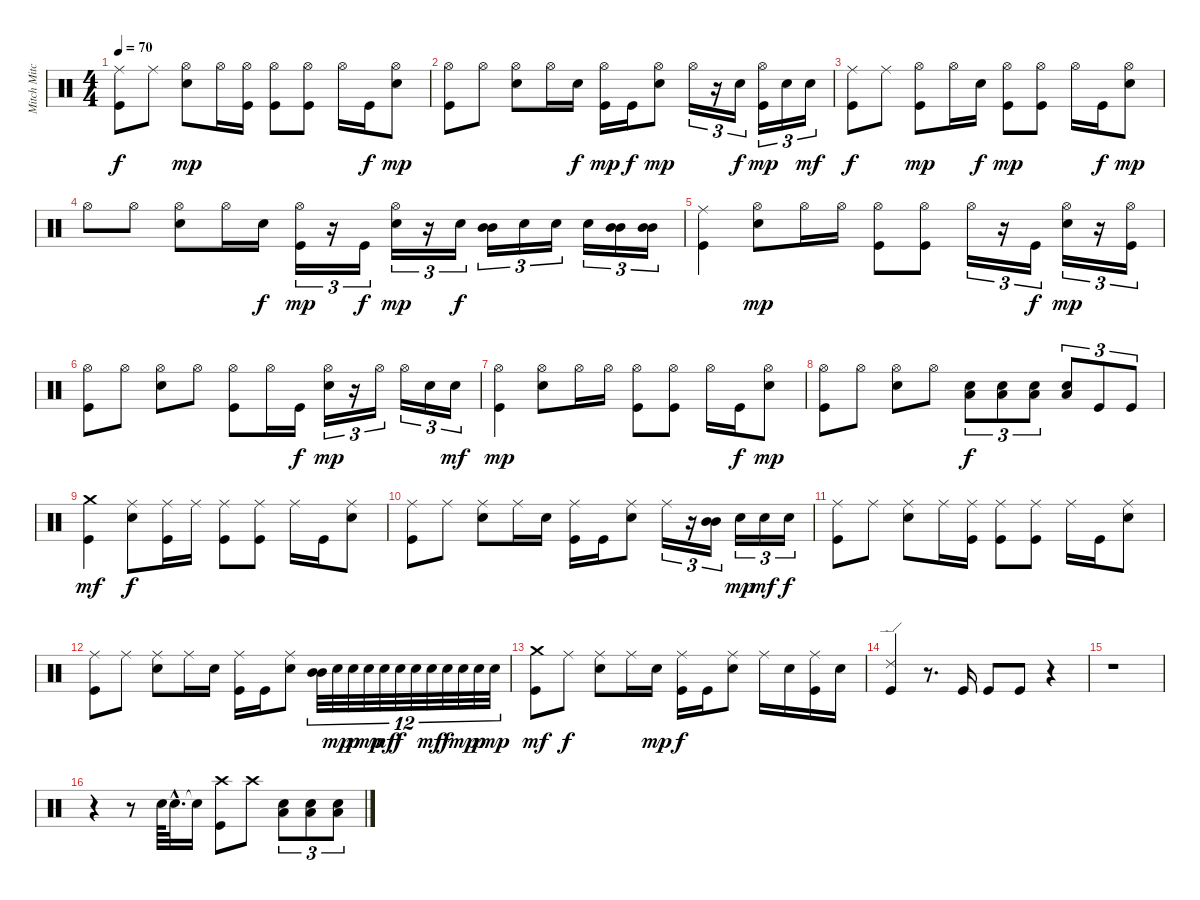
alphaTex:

\track ("Mitch Mitchell" "Mitch Mitc") {instrument percussion}
\staff {score}
\articulation defaults
\ts (4 4)
\tempo 70
\clef neutral
\ks c
("Ride (middle)" "Kick (hit)").8{dy f} "Ride (middle)".8 ("Hi-Hat (open)" "Electric Snare (hit)").8{dy mp} "Hi-Hat (open)".16 ("Hi-Hat (open)" "Kick (hit)").16 ("Hi-Hat (open)" "Kick (hit)").8 ("Hi-Hat (open)" "Kick (hit)").8 "Hi-Hat (open)".16 "Kick (hit)".16{dy f} ("Hi-Hat (open)" "Electric Snare (hit)").8{dy mp} |
("Hi-Hat (open)" "Kick (hit)").8 "Hi-Hat (open)".8 ("Hi-Hat (open)" "Electric Snare (hit)").8 "Hi-Hat (open)".16 "Electric Snare (hit)".16{dy f} ("Hi-Hat (open)" "Kick (hit)").16{dy mp} "Kick (hit)".16{dy f} ("Hi-Hat (open)" "Electric Snare (hit)").8{dy mp} "Hi-Hat (open)".16{tu (3 2)} r.16{tu (3 2)} "Electric Snare (hit)".16{tu (3 2) dy f} ("Hi-Hat (open)" "Kick (hit)").16{tu (3 2) dy mp} "Electric Snare (hit)".16{tu (3 2)} "Electric Snare (hit)".16{tu (3 2) dy mf} |
("Ride (middle)" "Kick (hit)").8{dy f} "Ride (middle)".8 ("Hi-Hat (open)" "Kick (hit)").8{dy mp} "Hi-Hat (open)".16 "Electric Snare (hit)".16{dy f} ("Hi-Hat (open)" "Kick (hit)").8{dy mp} ("Hi-Hat (open)" "Kick (hit)").8 "Hi-Hat (open)".16 "Kick (hit)".16{dy f} ("Hi-Hat (open)" "Electric Snare (hit)").8{dy mp} |
"Hi-Hat (open)".8 "Hi-Hat (open)".8 ("Hi-Hat (open)" "Electric Snare (hit)").8 "Hi-Hat (open)".16 "Electric Snare (hit)".16{dy f} ("Hi-Hat (open)" "Kick (hit)").16{tu (3 2) dy mp} r.16{tu (3 2)} "Kick (hit)".16{tu (3 2) dy f} ("Hi-Hat (open)" "Electric Snare (hit)").16{tu (3 2) dy mp} r.16{tu (3 2)} "Electric Snare (hit)".16{tu (3 2) dy f} ("Mid Tom (hit)" "Mid Tom (hit)").16{tu (3 2)} "Electric Snare (hit)".16{tu (3 2)} "Electric Snare (hit)".16{tu (3 2)} "Electric Snare (hit)".16{tu (3 2)} ("Mid Tom (hit)" "Mid Tom (hit)").16{tu (3 2)} ("Mid Tom (hit)" "Mid Tom (hit)").16{tu (3 2)} |
("Ride (middle)" "Kick (hit)").4 ("Hi-Hat (open)" "Electric Snare (hit)").8{dy mp} "Hi-Hat (open)".16 "Hi-Hat (open)".16 ("Hi-Hat (open)" "Kick (hit)").8 ("Hi-Hat (open)" "Kick (hit)").8 "Hi-Hat (open)".16{tu (3 2)} r.16{tu (3 2)} "Kick (hit)".16{tu (3 2) dy f} ("Hi-Hat (open)" "Electric Snare (hit)").16{tu (3 2) dy mp} r.16{tu (3 2)} ("Hi-Hat (open)" "Kick (hit)").16{tu (3 2)} |
("Hi-Hat (open)" "Kick (hit)").8 "Hi-Hat (open)".8 ("Hi-Hat (open)" "Electric Snare (hit)").8 "Hi-Hat (open)".8 ("Hi-Hat (open)" "Kick (hit)").8 "Hi-Hat (open)".16 "Kick (hit)".16{dy f} ("Hi-Hat (open)" "Electric Snare (hit)").16{tu (3 2) dy mp} r.16{tu (3 2)} "Hi-Hat (open)".16{tu (3 2)} "Hi-Hat (open)".16{tu (3 2)} "Electric Snare (hit)".16{tu (3 2)} "Electric Snare (hit)".16{tu (3 2) dy mf} |
("Hi-Hat (open)" "Kick (hit)").4{dy mp} ("Hi-Hat (open)" "Electric Snare (hit)").8 "Hi-Hat (open)".16 "Hi-Hat (open)".16 ("Hi-Hat (open)" "Kick (hit)").8 ("Hi-Hat (open)" "Kick (hit)").8 "Hi-Hat (open)".16 "Kick (hit)".16{dy f} ("Hi-Hat (open)" "Electric Snare (hit)").8{dy mp} |
("Hi-Hat (open)" "Kick (hit)").8 "Hi-Hat (open)".8 ("Hi-Hat (open)" "Electric Snare (hit)").8 "Hi-Hat (open)".8 ("Electric Snare (hit)" "Low Tom (hit)").8{tu (3 2) dy f} ("Electric Snare (hit)" "Low Tom (hit)").8{tu (3 2)} ("Electric Snare (hit)" "Low Tom (hit)").8{tu (3 2)} ("Electric Snare (hit)" "Low Tom (hit)").8{tu (3 2)} "Kick (hit)".8{tu (3 2)} "Kick (hit)".8{tu (3 2)} |
("Crash medium (hit)" "Kick (hit)").4{dy mf} ("Ride (middle)" "Electric Snare (hit)").8{dy f} ("Ride (middle)" "Kick (hit)").16 "Ride (middle)".16 ("Ride (middle)" "Kick (hit)").8 ("Ride (middle)" "Kick (hit)").8 "Ride (middle)".16 "Kick (hit)".16 ("Ride (middle)" "Electric Snare (hit)").8 |
("Ride (middle)" "Kick (hit)").8 "Ride (middle)".8 ("Ride (middle)" "Electric Snare (hit)").8 "Ride (middle)".16 "Electric Snare (hit)".16 ("Ride (middle)" "Kick (hit)").16 "Kick (hit)".16 ("Ride (middle)" "Electric Snare (hit)").8 "Ride (middle)".16{tu (3 2)} r.16{tu (3 2)} ("Mid Tom (hit)" "Mid Tom (hit)").16{tu (3 2)} "Electric Snare (hit)".16{tu (3 2) dy mp} "Electric Snare (hit)".16{tu (3 2) dy mf} "Electric Snare (hit)".16{tu (3 2) dy f} |
("Ride (middle)" "Kick (hit)").8 "Ride (middle)".8 ("Ride (middle)" "Electric Snare (hit)").8 "Ride (middle)".16 ("Ride (middle)" "Kick (hit)").16 ("Ride (middle)" "Kick (hit)").8 ("Ride (middle)" "Kick (hit)").8 "Ride (middle)".16 "Kick (hit)".16 ("Ride (middle)" "Electric Snare (hit)").8 |
("Ride (middle)" "Kick (hit)").8 "Ride (middle)".8 ("Ride (middle)" "Electric Snare (hit)").8 "Ride (middle)".16 "Electric Snare (hit)".16 ("Ride (middle)" "Kick (hit)").16 "Kick (hit)".16 ("Ride (middle)" "Electric Snare (hit)").8 ("Mid Tom (hit)" "Mid Tom (hit)").32{tu (12 8)} "Electric Snare (hit)".32{tu (12 8) dy mp} "Electric Snare (hit)".32{tu (12 8) dy p} "Electric Snare (hit)".32{tu (12 8) dy mp} "Electric Snare (hit)".32{tu (12 8) dy mf} "Electric Snare (hit)".32{tu (12 8) dy f} "Electric Snare (hit)".32{tu (12 8)} "Electric Snare (hit)".32{tu (12 8) dy mf} "Electric Snare (hit)".32{tu (12 8) dy f} "Electric Snare (hit)".32{tu (12 8) dy mp} "Electric Snare (hit)".32{tu (12 8) dy p} "Electric Snare (hit)".32{tu (12 8) dy mp} |
("Crash medium (hit)" "Kick (hit)").8{dy mf} "Ride (middle)".8{dy f} ("Ride (middle)" "Electric Snare (hit)").8 "Ride (middle)".16 "Electric Snare (hit)".16{dy mp} ("Ride (middle)" "Kick (hit)").16{dy f} "Kick (hit)".16 ("Ride (middle)" "Electric Snare (hit)").8 "Ride (middle)".16 "Electric Snare (hit)".16 ("Ride (middle)" "Kick (hit)").16 "Electric Snare (hit)".16 |
("Ride (edge) 2" "Kick (hit)").4 r.8{d} "Kick (hit)".16 "Kick (hit)".8 "Kick (hit)".8 r.4 |
r.1 |
r.4 r.8 "Electric Snare (hit)".64 "Electric Snare (hit)"{hac}.32{d} "Snare (hit)"{t}.16 ("Crash high (hit)" "Kick (hit)").8 "Crash high (hit)".8 ("Electric Snare (hit)" "Low Tom (hit)").8{tu (3 2)} ("Electric Snare (hit)" "Low Tom (hit)").8{tu (3 2)} ("Electric Snare (hit)" "Low Tom (hit)").8{tu (3 2)}
